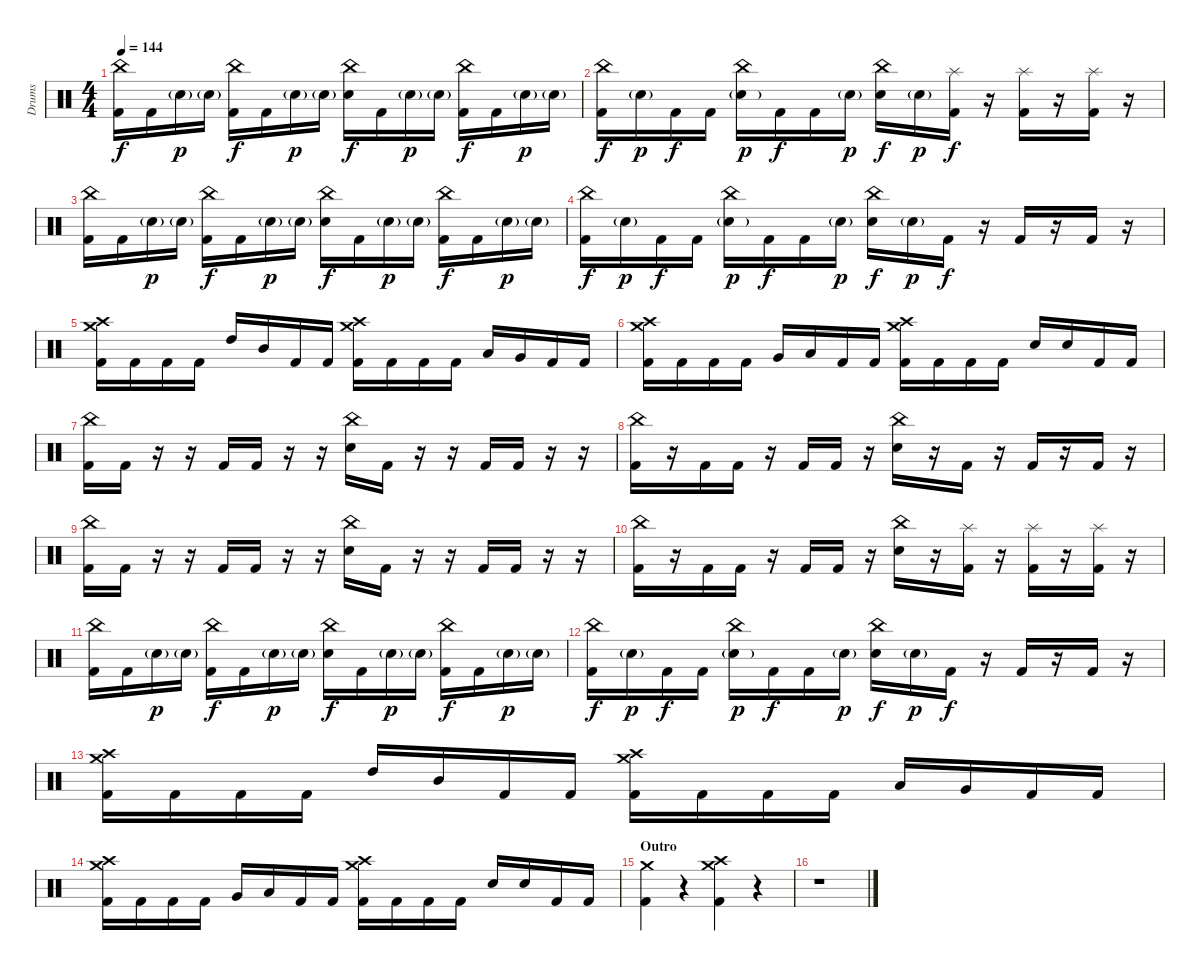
\track ("Drums" "Drums") {instrument percussion}
\staff {score}
\articulation defaults
\ts (4 4)
\tempo 144
\clef neutral
\ks c
("China (hit)" "Kick (hit) 2").16{dy f} "Kick (hit) 2".16 "Snare (hit) 2"{g}.16{dy p} "Snare (hit) 2"{g}.16 ("China (hit)" "Kick (hit) 2").16{dy f} "Kick (hit) 2".16 "Snare (hit) 2"{g}.16{dy p} "Snare (hit) 2"{g}.16 ("China (hit)" "Electric Snare (hit)").16{dy f} "Kick (hit) 2".16 "Snare (hit) 2"{g}.16{dy p} "Snare (hit) 2"{g}.16 ("China (hit)" "Kick (hit) 2").16{dy f} "Kick (hit) 2".16 "Snare (hit) 2"{g}.16{dy p} "Snare (hit) 2"{g}.16 |
("China (hit)" "Kick (hit) 2").16{dy f} "Snare (hit) 2"{g}.16{dy p} "Kick (hit) 2".16{dy f} "Kick (hit) 2".16 ("China (hit)" "Snare (hit) 2"{g}).16{dy p} "Kick (hit) 2".16{dy f} "Kick (hit) 2".16 "Snare (hit) 2"{g}.16{dy p} ("China (hit)" "Electric Snare (hit)").16{dy f} "Snare (hit) 2"{g}.16{dy p} ("Splash (hit)" "Kick (hit) 2").16{dy f} r.16 ("Splash (hit)" "Kick (hit) 2").16 r.16 ("Splash (hit)" "Kick (hit) 2").16 r.16 |
("China (hit)" "Kick (hit) 2").16 "Kick (hit) 2".16 "Snare (hit) 2"{g}.16{dy p} "Snare (hit) 2"{g}.16 ("China (hit)" "Kick (hit) 2").16{dy f} "Kick (hit) 2".16 "Snare (hit) 2"{g}.16{dy p} "Snare (hit) 2"{g}.16 ("China (hit)" "Electric Snare (hit)").16{dy f} "Kick (hit) 2".16 "Snare (hit) 2"{g}.16{dy p} "Snare (hit) 2"{g}.16 ("China (hit)" "Kick (hit) 2").16{dy f} "Kick (hit) 2".16 "Snare (hit) 2"{g}.16{dy p} "Snare (hit) 2"{g}.16 |
("China (hit)" "Kick (hit) 2").16{dy f} "Snare (hit) 2"{g}.16{dy p} "Kick (hit) 2".16{dy f} "Kick (hit) 2".16 ("China (hit)" "Snare (hit) 2"{g}).16{dy p} "Kick (hit) 2".16{dy f} "Kick (hit) 2".16 "Snare (hit) 2"{g}.16{dy p} ("China (hit)" "Electric Snare (hit)").16{dy f} "Snare (hit) 2"{g}.16{dy p} "Kick (hit) 2".16{dy f} r.16 "Kick (hit) 2".16 r.16 "Kick (hit) 2".16 r.16 |
("Crash medium (hit)" "Crash high (hit)" "Kick (hit) 2").16 "Kick (hit) 2".16 "Kick (hit) 2".16 "Kick (hit) 2".16 "High Tom (hit)".16 "Mid Tom (hit)".16 "Kick (hit) 2".16 "Kick (hit) 2".16 ("Crash medium (hit)" "Crash high (hit)" "Kick (hit) 2").16 "Kick (hit) 2".16 "Kick (hit) 2".16 "Kick (hit) 2".16 "Low Tom (hit)".16 "Very Low Tom (hit)".16 "Kick (hit) 2".16 "Kick (hit) 2".16 |
("Crash medium (hit)" "Crash high (hit)" "Kick (hit) 2").16 "Kick (hit) 2".16 "Kick (hit) 2".16 "Kick (hit) 2".16 "Very Low Tom (hit)".16 "Low Floor Tom (hit)".16 "Kick (hit) 2".16 "Kick (hit) 2".16 ("Crash medium (hit)" "Crash high (hit)" "Kick (hit) 2").16 "Kick (hit) 2".16 "Kick (hit) 2".16 "Kick (hit) 2".16 "Electric Snare (hit)".16 "Electric Snare (hit)".16 "Kick (hit) 2".16 "Kick (hit) 2".16 |
("China (hit)" "Kick (hit) 2").16 "Kick (hit) 2".16 r.16 r.16 "Kick (hit) 2".16 "Kick (hit) 2".16 r.16 r.16 ("China (hit)" "Electric Snare (hit)").16 "Kick (hit) 2".16 r.16 r.16 "Kick (hit) 2".16 "Kick (hit) 2".16 r.16 r.16 |
("China (hit)" "Kick (hit) 2").16 r.16 "Kick (hit) 2".16 "Kick (hit) 2".16 r.16 "Kick (hit) 2".16 "Kick (hit) 2".16 r.16 ("China (hit)" "Electric Snare (hit)").16 r.16 "Kick (hit) 2".16 r.16 "Kick (hit) 2".16 r.16 "Kick (hit) 2".16 r.16 |
("China (hit)" "Kick (hit) 2").16 "Kick (hit) 2".16 r.16 r.16 "Kick (hit) 2".16 "Kick (hit) 2".16 r.16 r.16 ("China (hit)" "Electric Snare (hit)").16 "Kick (hit) 2".16 r.16 r.16 "Kick (hit) 2".16 "Kick (hit) 2".16 r.16 r.16 |
("China (hit)" "Kick (hit) 2").16 r.16 "Kick (hit) 2".16 "Kick (hit) 2".16 r.16 "Kick (hit) 2".16 "Kick (hit) 2".16 r.16 ("China (hit)" "Electric Snare (hit)").16 r.16 ("Splash (hit)" "Kick (hit) 2").16 r.16 ("Splash (hit)" "Kick (hit) 2").16 r.16 ("Splash (hit)" "Kick (hit) 2").16 r.16 |
("China (hit)" "Kick (hit) 2").16 "Kick (hit) 2".16 "Snare (hit) 2"{g}.16{dy p} "Snare (hit) 2"{g}.16 ("China (hit)" "Kick (hit) 2").16{dy f} "Kick (hit) 2".16 "Snare (hit) 2"{g}.16{dy p} "Snare (hit) 2"{g}.16 ("China (hit)" "Electric Snare (hit)").16{dy f} "Kick (hit) 2".16 "Snare (hit) 2"{g}.16{dy p} "Snare (hit) 2"{g}.16 ("China (hit)" "Kick (hit) 2").16{dy f} "Kick (hit) 2".16 "Snare (hit) 2"{g}.16{dy p} "Snare (hit) 2"{g}.16 |
("China (hit)" "Kick (hit) 2").16{dy f} "Snare (hit) 2"{g}.16{dy p} "Kick (hit) 2".16{dy f} "Kick (hit) 2".16 ("China (hit)" "Snare (hit) 2"{g}).16{dy p} "Kick (hit) 2".16{dy f} "Kick (hit) 2".16 "Snare (hit) 2"{g}.16{dy p} ("China (hit)" "Electric Snare (hit)").16{dy f} "Snare (hit) 2"{g}.16{dy p} "Kick (hit) 2".16{dy f} r.16 "Kick (hit) 2".16 r.16 "Kick (hit) 2".16 r.16 |
("Crash medium (hit)" "Crash high (hit)" "Kick (hit) 2").16 "Kick (hit) 2".16 "Kick (hit) 2".16 "Kick (hit) 2".16 "High Tom (hit)".16 "Mid Tom (hit)".16 "Kick (hit) 2".16 "Kick (hit) 2".16 ("Crash medium (hit)" "Crash high (hit)" "Kick (hit) 2").16 "Kick (hit) 2".16 "Kick (hit) 2".16 "Kick (hit) 2".16 "Low Tom (hit)".16 "Very Low Tom (hit)".16 "Kick (hit) 2".16 "Kick (hit) 2".16 |
("Crash medium (hit)" "Crash high (hit)" "Kick (hit) 2").16 "Kick (hit) 2".16 "Kick (hit) 2".16 "Kick (hit) 2".16 "Very Low Tom (hit)".16 "Low Floor Tom (hit)".16 "Kick (hit) 2".16 "Kick (hit) 2".16 ("Crash medium (hit)" "Crash high (hit)" "Kick (hit) 2").16 "Kick (hit) 2".16 "Kick (hit) 2".16 "Kick (hit) 2".16 "Electric Snare (hit)".16 "Electric Snare (hit)".16 "Kick (hit) 2".16 "Kick (hit) 2".16 |
\section ("" "Outro")
("Crash medium (hit)" "Kick (hit) 2").4 r.4 ("Crash medium (hit)" "Crash high (hit)" "Kick (hit) 2").4 r.4 |
r.1
